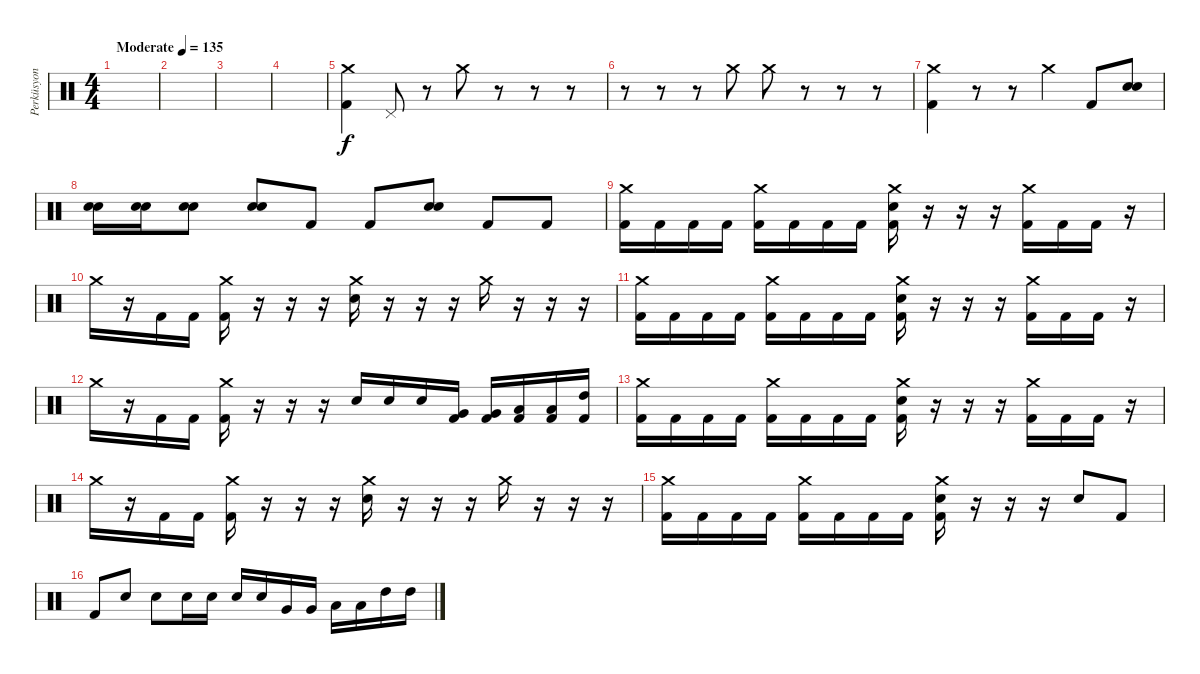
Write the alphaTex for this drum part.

\track ("Perküsyon" "Perküsyon") {instrument percussion}
\staff {score}
\articulation defaults
\ts (4 4)
\tempo (135 "Moderate")
\clef neutral
\ks c
|
|
|
|
("Crash medium (hit)" "Kick (hit) 2").4 "Pedal Hi-Hat (hit)".8 r.8 "Crash medium (hit)".8 r.8 r.8 r.8 |
r.8 r.8 r.8 "Crash medium (hit)".8 "Crash medium (hit)".8 r.8 r.8 r.8 |
("Crash medium (hit)" "Kick (hit) 2").4 r.8 r.8 "Crash medium (hit)".4 "Kick (hit) 2".8 ("Electric Snare (hit)" "Electric Snare (hit)").8 |
("Electric Snare (hit)" "Electric Snare (hit)").16 ("Electric Snare (hit)" "Electric Snare (hit)").16 ("Electric Snare (hit)" "Electric Snare (hit)").8 ("Electric Snare (hit)" "Electric Snare (hit)").8 "Kick (hit) 2".8 "Kick (hit) 2".8 ("Electric Snare (hit)" "Electric Snare (hit)").8 "Kick (hit) 2".8 "Kick (hit) 2".8 |
("Crash medium (hit)" "Kick (hit) 2").16 "Kick (hit) 2".16 "Kick (hit) 2".16 "Kick (hit) 2".16 ("Crash medium (hit)" "Kick (hit) 2").16 "Kick (hit) 2".16 "Kick (hit) 2".16 "Kick (hit) 2".16 ("Crash medium (hit)" "Electric Snare (hit)" "Kick (hit) 2").16 r.16 r.16 r.16 ("Crash medium (hit)" "Kick (hit) 2").16 "Kick (hit) 2".16 "Kick (hit) 2".16 r.16 |
"Crash medium (hit)".16 r.16 "Kick (hit) 2".16 "Kick (hit) 2".16 ("Crash medium (hit)" "Kick (hit) 2").16 r.16 r.16 r.16 ("Crash medium (hit)" "Electric Snare (hit)").16 r.16 r.16 r.16 "Crash medium (hit)".16 r.16 r.16 r.16 |
("Crash medium (hit)" "Kick (hit) 2").16 "Kick (hit) 2".16 "Kick (hit) 2".16 "Kick (hit) 2".16 ("Crash medium (hit)" "Kick (hit) 2").16 "Kick (hit) 2".16 "Kick (hit) 2".16 "Kick (hit) 2".16 ("Crash medium (hit)" "Electric Snare (hit)" "Kick (hit) 2").16 r.16 r.16 r.16 ("Crash medium (hit)" "Kick (hit) 2").16 "Kick (hit) 2".16 "Kick (hit) 2".16 r.16 |
"Crash medium (hit)".16 r.16 "Kick (hit) 2".16 "Kick (hit) 2".16 ("Crash medium (hit)" "Kick (hit) 2").16 r.16 r.16 r.16 "Electric Snare (hit)".16 "Electric Snare (hit)".16 "Electric Snare (hit)".16 ("Very Low Tom (hit)" "Kick (hit) 2").16 ("Very Low Tom (hit)" "Kick (hit) 2").16 ("Low Tom (hit)" "Kick (hit) 2").16 ("Low Tom (hit)" "Kick (hit) 2").16 ("High Tom (hit)" "Kick (hit) 2").16 |
("Crash medium (hit)" "Kick (hit) 2").16 "Kick (hit) 2".16 "Kick (hit) 2".16 "Kick (hit) 2".16 ("Crash medium (hit)" "Kick (hit) 2").16 "Kick (hit) 2".16 "Kick (hit) 2".16 "Kick (hit) 2".16 ("Crash medium (hit)" "Electric Snare (hit)" "Kick (hit) 2").16 r.16 r.16 r.16 ("Crash medium (hit)" "Kick (hit) 2").16 "Kick (hit) 2".16 "Kick (hit) 2".16 r.16 |
"Crash medium (hit)".16 r.16 "Kick (hit) 2".16 "Kick (hit) 2".16 ("Crash medium (hit)" "Kick (hit) 2").16 r.16 r.16 r.16 ("Crash medium (hit)" "Electric Snare (hit)").16 r.16 r.16 r.16 "Crash medium (hit)".16 r.16 r.16 r.16 |
("Crash medium (hit)" "Kick (hit) 2").16 "Kick (hit) 2".16 "Kick (hit) 2".16 "Kick (hit) 2".16 ("Crash medium (hit)" "Kick (hit) 2").16 "Kick (hit) 2".16 "Kick (hit) 2".16 "Kick (hit) 2".16 ("Crash medium (hit)" "Electric Snare (hit)" "Kick (hit) 2").16 r.16 r.16 r.16 "Electric Snare (hit)".8 "Kick (hit) 2".8 |
"Kick (hit) 2".8 "Electric Snare (hit)".8 "Electric Snare (hit)".8 "Electric Snare (hit)".16 "Electric Snare (hit)".16 "Electric Snare (hit)".16 "Electric Snare (hit)".16 "Very Low Tom (hit)".16 "Very Low Tom (hit)".16 "Low Tom (hit)".16 "Low Tom (hit)".16 "High Tom (hit)".16 "High Tom (hit)".16
